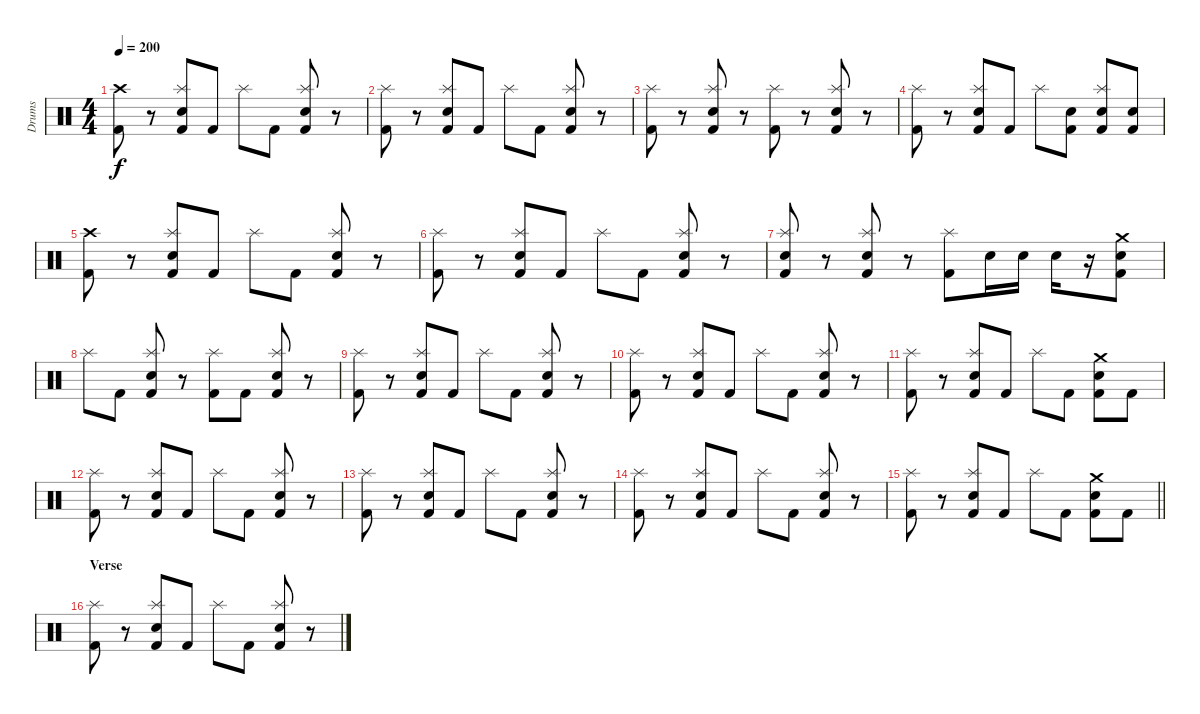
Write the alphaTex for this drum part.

\track ("Drums" "Drums") {instrument percussion}
\staff {score}
\articulation defaults
\ts (4 4)
\tempo 200
\clef neutral
\ks c
("Crash high (hit)" "Kick (hit) 2").8{dy f} r.8 ("Splash (hit)" "Snare (hit) 2" "Kick (hit) 2").8 "Kick (hit) 2".8 "Splash (hit)".8 "Kick (hit) 2".8 ("Splash (hit)" "Snare (hit) 2" "Kick (hit) 2").8 r.8 |
("Splash (hit)" "Kick (hit) 2").8 r.8 ("Splash (hit)" "Snare (hit) 2" "Kick (hit) 2").8 "Kick (hit) 2".8 "Splash (hit)".8 "Kick (hit) 2".8 ("Splash (hit)" "Snare (hit) 2" "Kick (hit) 2").8 r.8 |
("Splash (hit)" "Kick (hit) 2").8 r.8 ("Splash (hit)" "Snare (hit) 2" "Kick (hit) 2").8 r.8 ("Splash (hit)" "Kick (hit) 2").8 r.8 ("Splash (hit)" "Snare (hit) 2" "Kick (hit) 2").8 r.8 |
("Splash (hit)" "Kick (hit) 2").8 r.8 ("Splash (hit)" "Snare (hit) 2" "Kick (hit) 2").8 "Kick (hit) 2".8 "Splash (hit)".8 ("Snare (hit) 2" "Kick (hit) 2").8 ("Splash (hit)" "Snare (hit) 2" "Kick (hit) 2").8 ("Snare (hit) 2" "Kick (hit) 2").8 |
("Crash high (hit)" "Kick (hit) 2").8 r.8 ("Splash (hit)" "Snare (hit) 2" "Kick (hit) 2").8 "Kick (hit) 2".8 "Splash (hit)".8 "Kick (hit) 2".8 ("Splash (hit)" "Snare (hit) 2" "Kick (hit) 2").8 r.8 |
("Splash (hit)" "Kick (hit) 2").8 r.8 ("Splash (hit)" "Snare (hit) 2" "Kick (hit) 2").8 "Kick (hit) 2".8 "Splash (hit)".8 "Kick (hit) 2".8 ("Splash (hit)" "Snare (hit) 2" "Kick (hit) 2").8 r.8 |
("Splash (hit)" "Snare (hit) 2" "Kick (hit) 2").8 r.8 ("Splash (hit)" "Snare (hit) 2" "Kick (hit) 2").8 r.8 ("Splash (hit)" "Kick (hit) 2").8 "Snare (hit) 2".16 "Snare (hit) 2".16 "Snare (hit) 2".16 r.16 ("Crash medium (hit)" "Snare (hit) 2" "Kick (hit) 2").8 |
"Splash (hit)".8 "Kick (hit) 2".8 ("Splash (hit)" "Snare (hit) 2" "Kick (hit) 2").8 r.8 ("Splash (hit)" "Kick (hit) 2").8 "Kick (hit) 2".8 ("Splash (hit)" "Snare (hit) 2" "Kick (hit) 2").8 r.8 |
("Splash (hit)" "Kick (hit) 2").8 r.8 ("Splash (hit)" "Snare (hit) 2" "Kick (hit) 2").8 "Kick (hit) 2".8 "Splash (hit)".8 "Kick (hit) 2".8 ("Splash (hit)" "Snare (hit) 2" "Kick (hit) 2").8 r.8 |
("Splash (hit)" "Kick (hit) 2").8 r.8 ("Splash (hit)" "Snare (hit) 2" "Kick (hit) 2").8 "Kick (hit) 2".8 "Splash (hit)".8 "Kick (hit) 2".8 ("Splash (hit)" "Snare (hit) 2" "Kick (hit) 2").8 r.8 |
("Splash (hit)" "Kick (hit) 2").8 r.8 ("Splash (hit)" "Snare (hit) 2" "Kick (hit) 2").8 "Kick (hit) 2".8 "Splash (hit)".8 "Kick (hit) 2".8 ("Crash medium (hit)" "Snare (hit) 2" "Kick (hit) 2").8 "Kick (hit) 2".8 |
("Splash (hit)" "Kick (hit) 2").8 r.8 ("Splash (hit)" "Snare (hit) 2" "Kick (hit) 2").8 "Kick (hit) 2".8 "Splash (hit)".8 "Kick (hit) 2".8 ("Splash (hit)" "Snare (hit) 2" "Kick (hit) 2").8 r.8 |
("Splash (hit)" "Kick (hit) 2").8 r.8 ("Splash (hit)" "Snare (hit) 2" "Kick (hit) 2").8 "Kick (hit) 2".8 "Splash (hit)".8 "Kick (hit) 2".8 ("Splash (hit)" "Snare (hit) 2" "Kick (hit) 2").8 r.8 |
("Splash (hit)" "Kick (hit) 2").8 r.8 ("Splash (hit)" "Snare (hit) 2" "Kick (hit) 2").8 "Kick (hit) 2".8 "Splash (hit)".8 "Kick (hit) 2".8 ("Splash (hit)" "Snare (hit) 2" "Kick (hit) 2").8 r.8 |
\barLineRight lightlight
("Splash (hit)" "Kick (hit) 2").8 r.8 ("Splash (hit)" "Snare (hit) 2" "Kick (hit) 2").8 "Kick (hit) 2".8 "Splash (hit)".8 "Kick (hit) 2".8 ("Crash medium (hit)" "Snare (hit) 2" "Kick (hit) 2").8 "Kick (hit) 2".8 |
\section ("" "Verse")
("Splash (hit)" "Kick (hit) 2").8 r.8 ("Splash (hit)" "Snare (hit) 2" "Kick (hit) 2").8 "Kick (hit) 2".8 "Splash (hit)".8 "Kick (hit) 2".8 ("Splash (hit)" "Snare (hit) 2" "Kick (hit) 2").8 r.8
